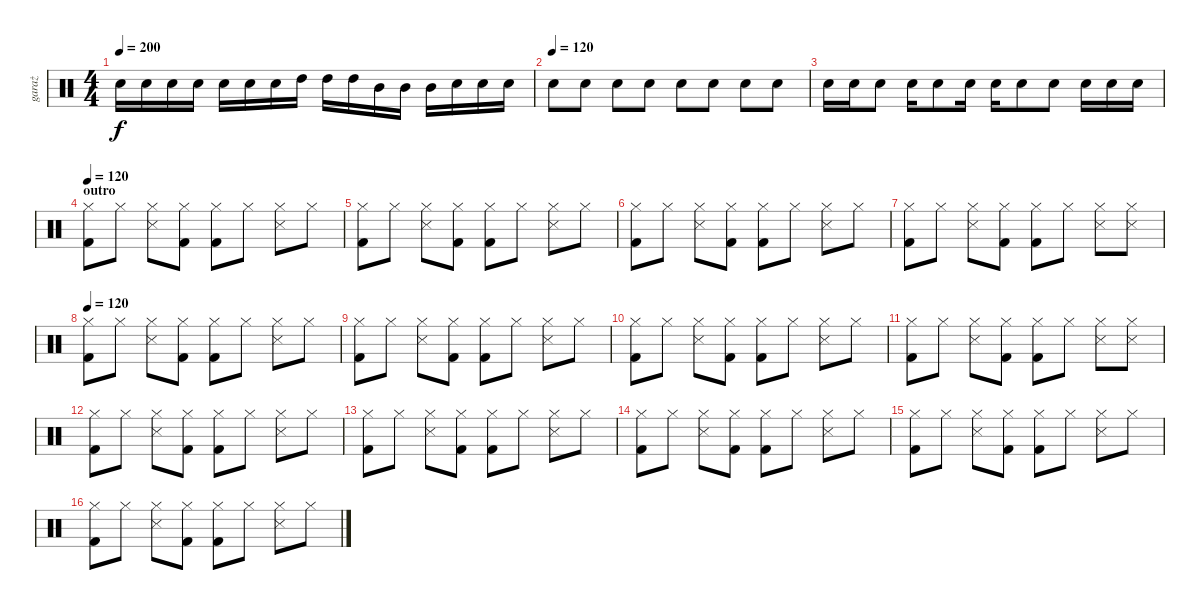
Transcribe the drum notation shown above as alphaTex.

\track ("garaż" "garaż") {instrument percussion}
\staff {score}
\articulation defaults
\ts (4 4)
\tempo 200
\clef neutral
\ks c "Snare (hit) 2".16{dy f} "Snare (hit) 2".16 "Snare (hit) 2".16 "Snare (hit) 2".16 "Snare (hit) 2".16 "Snare (hit) 2".16 "Snare (hit) 2".16 "High Tom (hit)".16 "High Tom (hit)".16 "High Tom (hit)".16 "Mid Tom (hit)".16 "Mid Tom (hit)".16 "Mid Tom (hit)".16 "Snare (hit) 2".16 "Snare (hit) 2".16 "Snare (hit) 2".16
|
\tempo (120)
"Snare (hit) 2".8 "Snare (hit) 2".8 "Snare (hit) 2".8 "Snare (hit) 2".8 "Snare (hit) 2".8 "Snare (hit) 2".8 "Snare (hit) 2".8 "Snare (hit) 2".8 |
"Snare (hit) 2".16 "Snare (hit) 2".16 "Snare (hit) 2".8 "Snare (hit) 2".16 "Snare (hit) 2".8 "Snare (hit) 2".16 "Snare (hit) 2".16 "Snare (hit) 2".8 "Snare (hit) 2".8 "Snare (hit) 2".16 "Snare (hit) 2".16 "Snare (hit) 2".16 |
\section ("" "outro")
\tempo 120
("Hi-Hat (closed)" "Kick (hit) 2").8 "Hi-Hat (closed)".8 ("Hi-Hat (closed)" "Snare (side stick) 3").8 ("Hi-Hat (closed)" "Kick (hit) 2").8 ("Hi-Hat (closed)" "Kick (hit) 2").8 "Hi-Hat (closed)".8 ("Hi-Hat (closed)" "Snare (side stick) 3").8 "Hi-Hat (closed)".8 |
("Hi-Hat (closed)" "Kick (hit) 2").8 "Hi-Hat (closed)".8 ("Hi-Hat (closed)" "Snare (side stick) 3").8 ("Hi-Hat (closed)" "Kick (hit) 2").8 ("Hi-Hat (closed)" "Kick (hit) 2").8 "Hi-Hat (closed)".8 ("Hi-Hat (closed)" "Snare (side stick) 3").8 "Hi-Hat (closed)".8 |
("Hi-Hat (closed)" "Kick (hit) 2").8 "Hi-Hat (closed)".8 ("Hi-Hat (closed)" "Snare (side stick) 3").8 ("Hi-Hat (closed)" "Kick (hit) 2").8 ("Hi-Hat (closed)" "Kick (hit) 2").8 "Hi-Hat (closed)".8 ("Hi-Hat (closed)" "Snare (side stick) 3").8 "Hi-Hat (closed)".8 |
("Hi-Hat (closed)" "Kick (hit) 2").8 "Hi-Hat (closed)".8 ("Hi-Hat (closed)" "Snare (side stick) 3").8 ("Hi-Hat (closed)" "Kick (hit) 2").8 ("Hi-Hat (closed)" "Kick (hit) 2").8 "Hi-Hat (closed)".8 ("Hi-Hat (closed)" "Snare (side stick) 3").8 ("Hi-Hat (closed)" "Snare (side stick) 3").8 |
\tempo 120
("Hi-Hat (closed)" "Kick (hit) 2").8 "Hi-Hat (closed)".8 ("Hi-Hat (closed)" "Snare (side stick) 3").8 ("Hi-Hat (closed)" "Kick (hit) 2").8 ("Hi-Hat (closed)" "Kick (hit) 2").8 "Hi-Hat (closed)".8 ("Hi-Hat (closed)" "Snare (side stick) 3").8 "Hi-Hat (closed)".8 |
("Hi-Hat (closed)" "Kick (hit) 2").8 "Hi-Hat (closed)".8 ("Hi-Hat (closed)" "Snare (side stick) 3").8 ("Hi-Hat (closed)" "Kick (hit) 2").8 ("Hi-Hat (closed)" "Kick (hit) 2").8 "Hi-Hat (closed)".8 ("Hi-Hat (closed)" "Snare (side stick) 3").8 "Hi-Hat (closed)".8 |
("Hi-Hat (closed)" "Kick (hit) 2").8 "Hi-Hat (closed)".8 ("Hi-Hat (closed)" "Snare (side stick) 3").8 ("Hi-Hat (closed)" "Kick (hit) 2").8 ("Hi-Hat (closed)" "Kick (hit) 2").8 "Hi-Hat (closed)".8 ("Hi-Hat (closed)" "Snare (side stick) 3").8 "Hi-Hat (closed)".8 |
("Hi-Hat (closed)" "Kick (hit) 2").8 "Hi-Hat (closed)".8 ("Hi-Hat (closed)" "Snare (side stick) 3").8 ("Hi-Hat (closed)" "Kick (hit) 2").8 ("Hi-Hat (closed)" "Kick (hit) 2").8 "Hi-Hat (closed)".8 ("Hi-Hat (closed)" "Snare (side stick) 3").8 ("Hi-Hat (closed)" "Snare (side stick) 3").8 |
("Hi-Hat (closed)" "Kick (hit) 2").8 "Hi-Hat (closed)".8 ("Hi-Hat (closed)" "Snare (side stick) 3").8 ("Hi-Hat (closed)" "Kick (hit) 2").8 ("Hi-Hat (closed)" "Kick (hit) 2").8 "Hi-Hat (closed)".8 ("Hi-Hat (closed)" "Snare (side stick) 3").8 "Hi-Hat (closed)".8 |
("Hi-Hat (closed)" "Kick (hit) 2").8 "Hi-Hat (closed)".8 ("Hi-Hat (closed)" "Snare (side stick) 3").8 ("Hi-Hat (closed)" "Kick (hit) 2").8 ("Hi-Hat (closed)" "Kick (hit) 2").8 "Hi-Hat (closed)".8 ("Hi-Hat (closed)" "Snare (side stick) 3").8 "Hi-Hat (closed)".8 |
("Hi-Hat (closed)" "Kick (hit) 2").8 "Hi-Hat (closed)".8 ("Hi-Hat (closed)" "Snare (side stick) 3").8 ("Hi-Hat (closed)" "Kick (hit) 2").8 ("Hi-Hat (closed)" "Kick (hit) 2").8 "Hi-Hat (closed)".8 ("Hi-Hat (closed)" "Snare (side stick) 3").8 "Hi-Hat (closed)".8 |
("Hi-Hat (closed)" "Kick (hit) 2").8 "Hi-Hat (closed)".8 ("Hi-Hat (closed)" "Snare (side stick) 3").8 ("Hi-Hat (closed)" "Kick (hit) 2").8 ("Hi-Hat (closed)" "Kick (hit) 2").8 "Hi-Hat (closed)".8 ("Hi-Hat (closed)" "Snare (side stick) 3").8 "Hi-Hat (closed)".8 |
("Hi-Hat (closed)" "Kick (hit) 2").8 "Hi-Hat (closed)".8 ("Hi-Hat (closed)" "Snare (side stick) 3").8 ("Hi-Hat (closed)" "Kick (hit) 2").8 ("Hi-Hat (closed)" "Kick (hit) 2").8 "Hi-Hat (closed)".8 ("Hi-Hat (closed)" "Snare (side stick) 3").8 "Hi-Hat (closed)".8
